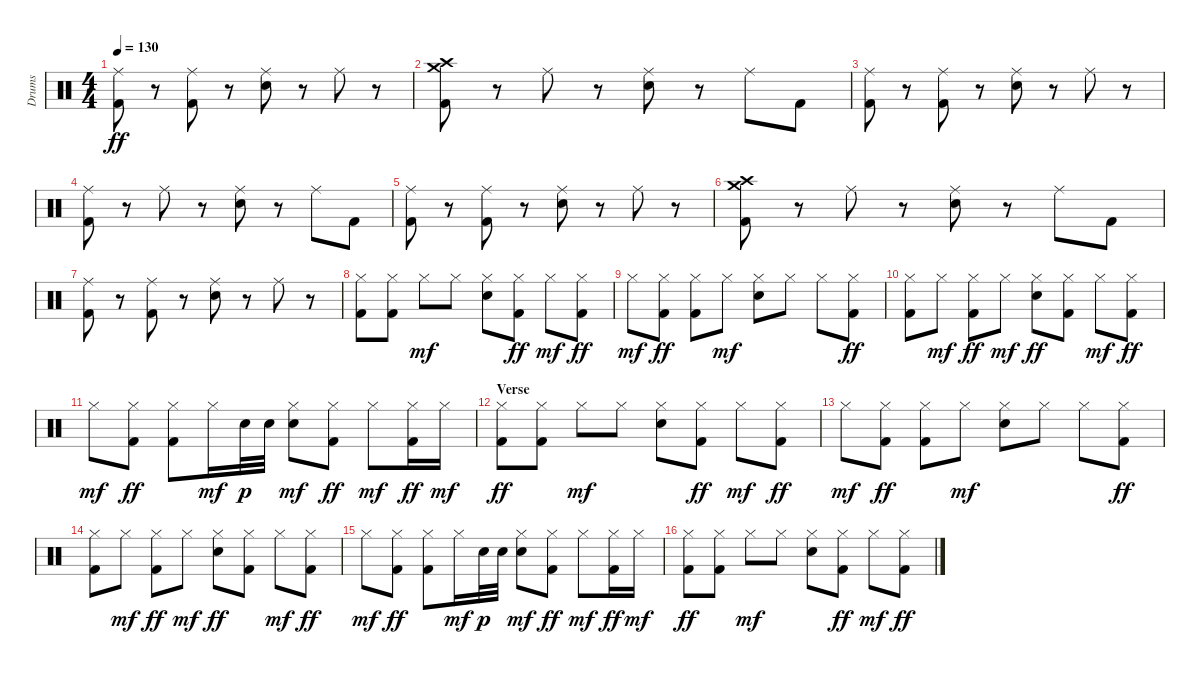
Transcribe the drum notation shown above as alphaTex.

\track ("Drums" "Drums") {instrument percussion}
\staff {score}
\articulation defaults
\ts (4 4)
\tempo 130
\clef neutral
\ks c
("Ride (middle)" "Kick (hit) 2").8{dy ff} r.8 ("Ride (middle)" "Kick (hit) 2").8 r.8 ("Ride (middle)" "Snare (hit) 2").8 r.8 "Ride (middle)".8 r.8 |
("Kick (hit) 2" "Crash medium (hit)" "Crash high (hit)").8 r.8 "Ride (middle)".8 r.8 ("Ride (middle)" "Snare (hit) 2").8 r.8 "Ride (middle)".8 "Kick (hit) 2".8 |
("Ride (middle)" "Kick (hit) 2").8 r.8 ("Ride (middle)" "Kick (hit) 2").8 r.8 ("Ride (middle)" "Snare (hit) 2").8 r.8 "Ride (middle)".8 r.8 |
("Ride (middle)" "Kick (hit) 2").8 r.8 "Ride (middle)".8 r.8 ("Ride (middle)" "Snare (hit) 2").8 r.8 "Ride (middle)".8 "Kick (hit) 2".8 |
("Ride (middle)" "Kick (hit) 2").8 r.8 ("Ride (middle)" "Kick (hit) 2").8 r.8 ("Ride (middle)" "Snare (hit) 2").8 r.8 "Ride (middle)".8 r.8 |
("Kick (hit) 2" "Crash medium (hit)" "Crash high (hit)").8 r.8 "Ride (middle)".8 r.8 ("Ride (middle)" "Snare (hit) 2").8 r.8 "Ride (middle)".8 "Kick (hit) 2".8 |
("Ride (middle)" "Kick (hit) 2").8 r.8 ("Ride (middle)" "Kick (hit) 2").8 r.8 ("Ride (middle)" "Snare (hit) 2").8 r.8 "Ride (middle)".8 r.8 |
("Hi-Hat (closed)" "Kick (hit) 2").8{volume 7} ("Hi-Hat (closed)" "Kick (hit) 2").8 "Hi-Hat (closed)".8{dy mf} "Hi-Hat (closed)".8 ("Hi-Hat (closed)" "Snare (hit) 2").8 ("Hi-Hat (closed)" "Kick (hit) 2").8{dy ff} "Hi-Hat (closed)".8{dy mf} ("Hi-Hat (closed)" "Kick (hit) 2").8{dy ff} |
"Hi-Hat (closed)".8{dy mf} ("Hi-Hat (closed)" "Kick (hit) 2").8{dy ff} ("Hi-Hat (closed)" "Kick (hit) 2").8 "Hi-Hat (closed)".8{dy mf} ("Hi-Hat (closed)" "Snare (hit) 2").8 "Hi-Hat (closed)".8 "Hi-Hat (closed)".8 ("Hi-Hat (closed)" "Kick (hit) 2").8{dy ff} |
("Hi-Hat (closed)" "Kick (hit) 2").8 "Hi-Hat (closed)".8{dy mf} ("Hi-Hat (closed)" "Kick (hit) 2").8{dy ff} "Hi-Hat (closed)".8{dy mf} ("Hi-Hat (closed)" "Snare (hit) 2").8{dy ff} ("Hi-Hat (closed)" "Kick (hit) 2").8 "Hi-Hat (closed)".8{dy mf} ("Hi-Hat (closed)" "Kick (hit) 2").8{dy ff} |
"Hi-Hat (closed)".8{dy mf} ("Hi-Hat (closed)" "Kick (hit) 2").8{dy ff} ("Hi-Hat (closed)" "Kick (hit) 2").8 "Hi-Hat (closed)".16{dy mf} "Snare (hit) 2".32{dy p} "Snare (hit) 2".32 ("Hi-Hat (closed)" "Snare (hit) 2").8{dy mf} ("Hi-Hat (closed)" "Kick (hit) 2").8{dy ff} "Hi-Hat (closed)".8{dy mf} ("Hi-Hat (closed)" "Kick (hit) 2").16{dy ff} "Hi-Hat (closed)".16{dy mf} |
\section ("" "Verse")
("Hi-Hat (closed)" "Kick (hit) 2").8{dy ff} ("Hi-Hat (closed)" "Kick (hit) 2").8 "Hi-Hat (closed)".8{dy mf} "Hi-Hat (closed)".8 ("Hi-Hat (closed)" "Snare (hit) 2").8 ("Hi-Hat (closed)" "Kick (hit) 2").8{dy ff} "Hi-Hat (closed)".8{dy mf} ("Hi-Hat (closed)" "Kick (hit) 2").8{dy ff} |
"Hi-Hat (closed)".8{dy mf} ("Hi-Hat (closed)" "Kick (hit) 2").8{dy ff} ("Hi-Hat (closed)" "Kick (hit) 2").8 "Hi-Hat (closed)".8{dy mf} ("Hi-Hat (closed)" "Snare (hit) 2").8 "Hi-Hat (closed)".8 "Hi-Hat (closed)".8 ("Hi-Hat (closed)" "Kick (hit) 2").8{dy ff} |
("Hi-Hat (closed)" "Kick (hit) 2").8 "Hi-Hat (closed)".8{dy mf} ("Hi-Hat (closed)" "Kick (hit) 2").8{dy ff} "Hi-Hat (closed)".8{dy mf} ("Hi-Hat (closed)" "Snare (hit) 2").8{dy ff} ("Hi-Hat (closed)" "Kick (hit) 2").8 "Hi-Hat (closed)".8{dy mf} ("Hi-Hat (closed)" "Kick (hit) 2").8{dy ff} |
"Hi-Hat (closed)".8{dy mf} ("Hi-Hat (closed)" "Kick (hit) 2").8{dy ff} ("Hi-Hat (closed)" "Kick (hit) 2").8 "Hi-Hat (closed)".16{dy mf} "Snare (hit) 2".32{dy p} "Snare (hit) 2".32 ("Hi-Hat (closed)" "Snare (hit) 2").8{dy mf} ("Hi-Hat (closed)" "Kick (hit) 2").8{dy ff} "Hi-Hat (closed)".8{dy mf} ("Hi-Hat (closed)" "Kick (hit) 2").16{dy ff} "Hi-Hat (closed)".16{dy mf} |
("Hi-Hat (closed)" "Kick (hit) 2").8{dy ff} ("Hi-Hat (closed)" "Kick (hit) 2").8 "Hi-Hat (closed)".8{dy mf} "Hi-Hat (closed)".8 ("Hi-Hat (closed)" "Snare (hit) 2").8 ("Hi-Hat (closed)" "Kick (hit) 2").8{dy ff} "Hi-Hat (closed)".8{dy mf} ("Hi-Hat (closed)" "Kick (hit) 2").8{dy ff}
